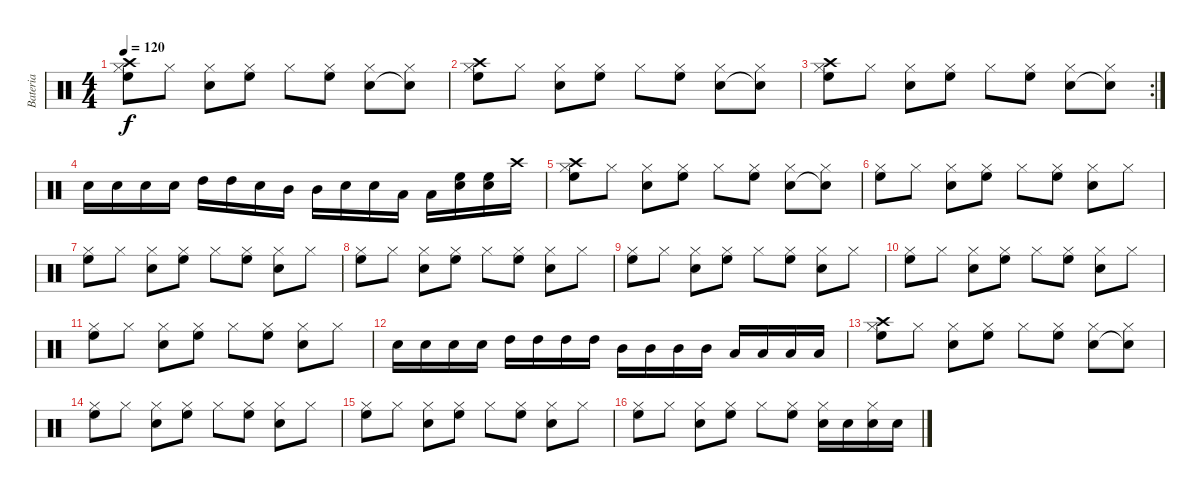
\track ("Bateria" "Bateria") {instrument percussion}
\staff {score}
\articulation defaults
\ts (4 4)
\tempo 120
\clef neutral
\ks c
("Hi-Hat (closed)" "Crash high (hit)" "High Floor Tom (hit)").8{dy f} "Hi-Hat (closed)".8 ("Hi-Hat (closed)" "Snare (hit) 2").8 ("Hi-Hat (closed)" "High Floor Tom (hit)").8 "Hi-Hat (closed)".8 ("Hi-Hat (closed)" "High Floor Tom (hit)").8 ("Hi-Hat (closed)" "Snare (hit) 2").8 ("Hi-Hat (closed)" "Snare (hit)"{t}).8 |
("Hi-Hat (closed)" "Crash high (hit)" "High Floor Tom (hit)").8 "Hi-Hat (closed)".8 ("Hi-Hat (closed)" "Snare (hit) 2").8 ("Hi-Hat (closed)" "High Floor Tom (hit)").8 "Hi-Hat (closed)".8 ("Hi-Hat (closed)" "High Floor Tom (hit)").8 ("Hi-Hat (closed)" "Snare (hit) 2").8 ("Hi-Hat (closed)" "Snare (hit)"{t}).8 |
\rc 2
("Hi-Hat (closed)" "Crash high (hit)" "High Floor Tom (hit)").8 "Hi-Hat (closed)".8 ("Hi-Hat (closed)" "Snare (hit) 2").8 ("Hi-Hat (closed)" "High Floor Tom (hit)").8 "Hi-Hat (closed)".8 ("Hi-Hat (closed)" "High Floor Tom (hit)").8 ("Hi-Hat (closed)" "Snare (hit) 2").8 ("Hi-Hat (closed)" "Snare (hit)"{t}).8 |
"Snare (hit) 2".16 "Snare (hit) 2".16 "Snare (hit) 2".16 "Snare (hit) 2".16 "High Tom (hit)".16 "High Tom (hit)".16 "Snare (hit) 2".16 "Mid Tom (hit)".16 "Mid Tom (hit)".16 "Snare (hit) 2".16 "Snare (hit) 2".16 "Low Tom (hit)".16 "Low Tom (hit)".16 ("Snare (hit) 2" "High Floor Tom (hit)").16 ("Snare (hit) 2" "High Floor Tom (hit)").16 "Crash high (hit)".16 |
("Hi-Hat (closed)" "Crash high (hit)" "High Floor Tom (hit)").8{volume 10} "Hi-Hat (closed)".8 ("Hi-Hat (closed)" "Snare (hit) 2").8 ("Hi-Hat (closed)" "High Floor Tom (hit)").8 "Hi-Hat (closed)".8 ("Hi-Hat (closed)" "High Floor Tom (hit)").8 ("Hi-Hat (closed)" "Snare (hit) 2").8 ("Hi-Hat (closed)" "Snare (hit)"{t}).8 |
("Hi-Hat (closed)" "High Floor Tom (hit)").8 "Hi-Hat (closed)".8 ("Hi-Hat (closed)" "Snare (hit) 2").8 ("Hi-Hat (closed)" "High Floor Tom (hit)").8 "Hi-Hat (closed)".8 ("Hi-Hat (closed)" "High Floor Tom (hit)").8 ("Hi-Hat (closed)" "Snare (hit) 2").8 "Hi-Hat (closed)".8 |
("Hi-Hat (closed)" "High Floor Tom (hit)").8 "Hi-Hat (closed)".8 ("Hi-Hat (closed)" "Snare (hit) 2").8 ("Hi-Hat (closed)" "High Floor Tom (hit)").8 "Hi-Hat (closed)".8 ("Hi-Hat (closed)" "High Floor Tom (hit)").8 ("Hi-Hat (closed)" "Snare (hit) 2").8 "Hi-Hat (closed)".8 |
("Hi-Hat (closed)" "High Floor Tom (hit)").8 "Hi-Hat (closed)".8 ("Hi-Hat (closed)" "Snare (hit) 2").8 ("Hi-Hat (closed)" "High Floor Tom (hit)").8 "Hi-Hat (closed)".8 ("Hi-Hat (closed)" "High Floor Tom (hit)").8 ("Hi-Hat (closed)" "Snare (hit) 2").8 "Hi-Hat (closed)".8 |
("Hi-Hat (closed)" "High Floor Tom (hit)").8 "Hi-Hat (closed)".8 ("Hi-Hat (closed)" "Snare (hit) 2").8 ("Hi-Hat (closed)" "High Floor Tom (hit)").8 "Hi-Hat (closed)".8 ("Hi-Hat (closed)" "High Floor Tom (hit)").8 ("Hi-Hat (closed)" "Snare (hit) 2").8 "Hi-Hat (closed)".8 |
("Hi-Hat (closed)" "High Floor Tom (hit)").8 "Hi-Hat (closed)".8 ("Hi-Hat (closed)" "Snare (hit) 2").8 ("Hi-Hat (closed)" "High Floor Tom (hit)").8 "Hi-Hat (closed)".8 ("Hi-Hat (closed)" "High Floor Tom (hit)").8 ("Hi-Hat (closed)" "Snare (hit) 2").8 "Hi-Hat (closed)".8 |
("Hi-Hat (closed)" "High Floor Tom (hit)").8 "Hi-Hat (closed)".8 ("Hi-Hat (closed)" "Snare (hit) 2").8 ("Hi-Hat (closed)" "High Floor Tom (hit)").8 "Hi-Hat (closed)".8 ("Hi-Hat (closed)" "High Floor Tom (hit)").8 ("Hi-Hat (closed)" "Snare (hit) 2").8 "Hi-Hat (closed)".8 |
"Snare (hit) 2".16 "Snare (hit) 2".16 "Snare (hit) 2".16 "Snare (hit) 2".16 "High Tom (hit)".16 "High Tom (hit)".16 "High Tom (hit)".16 "High Tom (hit)".16 "Mid Tom (hit)".16 "Mid Tom (hit)".16 "Mid Tom (hit)".16 "Mid Tom (hit)".16 "Low Tom (hit)".16 "Low Tom (hit)".16 "Low Tom (hit)".16 "Low Tom (hit)".16 |
("Hi-Hat (closed)" "Crash high (hit)" "High Floor Tom (hit)").8 "Hi-Hat (closed)".8 ("Hi-Hat (closed)" "Snare (hit) 2").8 ("Hi-Hat (closed)" "High Floor Tom (hit)").8 "Hi-Hat (closed)".8 ("Hi-Hat (closed)" "High Floor Tom (hit)").8 ("Hi-Hat (closed)" "Snare (hit) 2").8 ("Hi-Hat (closed)" "Snare (hit)"{t}).8 |
("Hi-Hat (closed)" "High Floor Tom (hit)").8 "Hi-Hat (closed)".8 ("Hi-Hat (closed)" "Snare (hit) 2").8 ("Hi-Hat (closed)" "High Floor Tom (hit)").8 "Hi-Hat (closed)".8 ("Hi-Hat (closed)" "High Floor Tom (hit)").8 ("Hi-Hat (closed)" "Snare (hit) 2").8 "Hi-Hat (closed)".8 |
("Hi-Hat (closed)" "High Floor Tom (hit)").8 "Hi-Hat (closed)".8 ("Hi-Hat (closed)" "Snare (hit) 2").8 ("Hi-Hat (closed)" "High Floor Tom (hit)").8 "Hi-Hat (closed)".8 ("Hi-Hat (closed)" "High Floor Tom (hit)").8 ("Hi-Hat (closed)" "Snare (hit) 2").8 "Hi-Hat (closed)".8 |
("Hi-Hat (closed)" "High Floor Tom (hit)").8 "Hi-Hat (closed)".8 ("Hi-Hat (closed)" "Snare (hit) 2").8 ("Hi-Hat (closed)" "High Floor Tom (hit)").8 "Hi-Hat (closed)".8 ("Hi-Hat (closed)" "High Floor Tom (hit)").8 ("Hi-Hat (closed)" "Snare (hit) 2").16 "Snare (hit) 2".16 ("Hi-Hat (closed)" "Snare (hit) 2").16 "Snare (hit) 2".16
